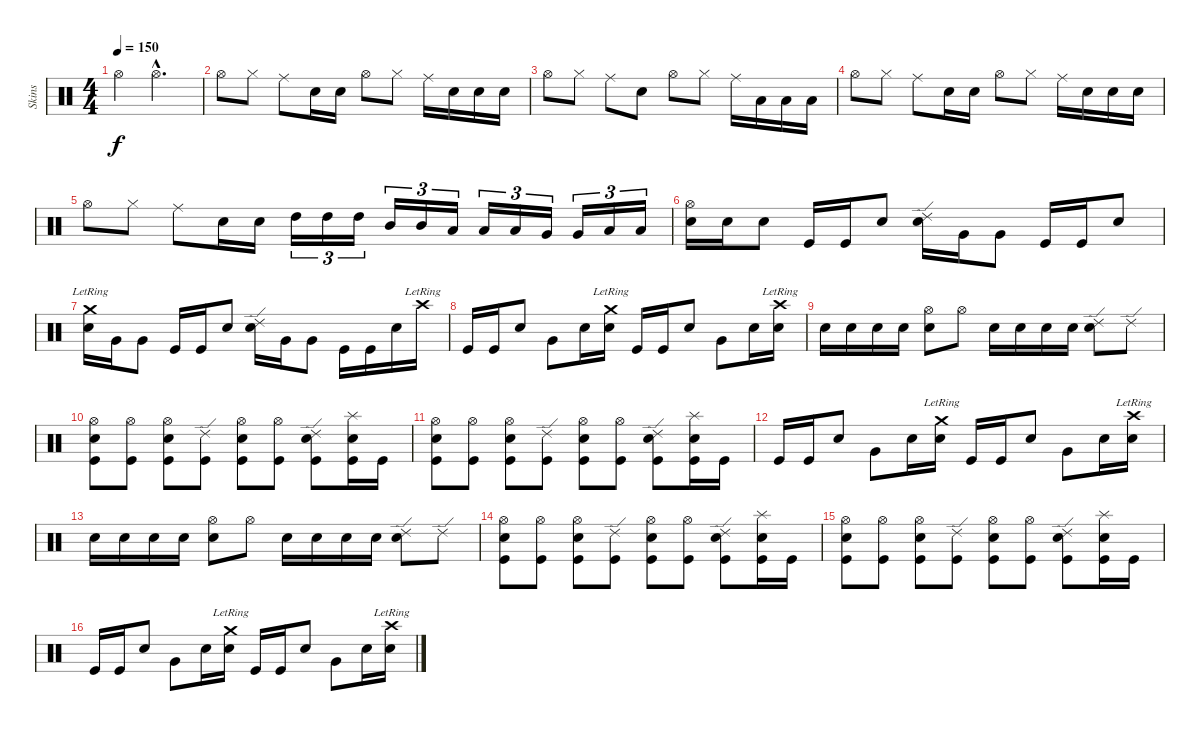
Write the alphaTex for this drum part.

\track ("Skins" "Skins") {instrument percussion}
\staff {score}
\articulation defaults
\ts (4 4)
\tempo 150
\clef neutral
\ks c "Hi-Hat (open)".4{dy f} "Hi-Hat (open)"{hac}.2{d}
|
"Hi-Hat (open)".8 "Hi-Hat (closed)".8 "Ride (middle)".8 "Electric Snare (hit)".16 "Electric Snare (hit)".16 "Hi-Hat (open)".8 "Hi-Hat (closed)".8 "Ride (middle)".16 "Electric Snare (hit)".16 "Electric Snare (hit)".16 "Electric Snare (hit)".16 |
"Hi-Hat (open)".8 "Hi-Hat (closed)".8 "Ride (middle)".8 "Electric Snare (hit)".8 "Hi-Hat (open)".8 "Hi-Hat (closed)".8 "Ride (middle)".16 "Low Tom (hit)".16 "Low Tom (hit)".16 "Low Tom (hit)".16 |
"Hi-Hat (open)".8 "Hi-Hat (closed)".8 "Ride (middle)".8 "Electric Snare (hit)".16 "Electric Snare (hit)".16 "Hi-Hat (open)".8 "Hi-Hat (closed)".8 "Ride (middle)".16 "Electric Snare (hit)".16 "Electric Snare (hit)".16 "Electric Snare (hit)".16 |
"Hi-Hat (open)".8 "Hi-Hat (closed)".8 "Ride (middle)".8 "Electric Snare (hit)".16 "Electric Snare (hit)".16 "High Tom (hit)".16{tu (3 2)} "High Tom (hit)".16{tu (3 2)} "High Tom (hit)".16{tu (3 2)} "Mid Tom (hit)".16{tu (3 2)} "Mid Tom (hit)".16{tu (3 2)} "Low Tom (hit)".16{tu (3 2)} "Low Tom (hit)".16{tu (3 2)} "Low Tom (hit)".16{tu (3 2)} "Very Low Tom (hit)".16{tu (3 2)} "Very Low Tom (hit)".16{tu (3 2)} "Low Floor Tom (hit)".16{tu (3 2)} "Low Floor Tom (hit)".16{tu (3 2)} |
("Hi-Hat (open)" "Snare (hit) 2").16 "Electric Snare (hit)".16 "Electric Snare (hit)".8 "Kick (hit)".16 "Kick (hit)".16 "Snare (hit) 2".8 ("Ride (edge) 2" "Snare (hit) 2").16 "Very Low Tom (hit)".16 "Very Low Tom (hit)".8 "Kick (hit)".16 "Kick (hit)".16 "Snare (hit) 2".8 |
("Snare (hit) 2" "Crash medium (hit)"{lr}).16 "Very Low Tom (hit)".16 "Very Low Tom (hit)".8 "Kick (hit)".16 "Kick (hit)".16 "Snare (hit) 2".8 ("Ride (edge) 2" "Snare (hit) 2").16 "Very Low Tom (hit)".16 "Very Low Tom (hit)".8 "Kick (hit)".16 "Kick (hit)".16 "Snare (hit) 2".16 "Crash high (hit)"{lr}.16 |
"Kick (hit)".16 "Kick (hit)".16 "Snare (hit) 2".8 "Very Low Tom (hit)".8 "Electric Snare (hit)".16 ("Electric Snare (hit)" "Crash medium (hit)"{lr}).16 "Kick (hit)".16 "Kick (hit)".16 "Snare (hit) 2".8 "Very Low Tom (hit)".8 "Electric Snare (hit)".16 ("Electric Snare (hit)" "Crash high (hit)"{lr}).16 |
"Electric Snare (hit)".16 "Electric Snare (hit)".16 "Electric Snare (hit)".16 "Electric Snare (hit)".16 ("Electric Snare (hit)" "Hi-Hat (open)").8 "Hi-Hat (open)".8 "Snare (hit) 2".16 "Snare (hit) 2".16 "Snare (hit) 2".16 "Snare (hit) 2".16 ("Snare (hit) 2" "Ride (edge) 2").8 "Ride (edge) 2".8 |
("Hi-Hat (open)" "Snare (hit) 2" "Kick (hit)").8 ("Hi-Hat (open)" "Kick (hit)").8 ("Hi-Hat (open)" "Snare (hit) 2" "Kick (hit)").8 ("Ride (edge) 2" "Kick (hit)").8 ("Hi-Hat (open)" "Snare (hit) 2" "Kick (hit)").8 ("Hi-Hat (open)" "Kick (hit)").8 ("Ride (edge) 2" "Electric Snare (hit)" "Kick (hit)").8 ("Splash (hit)" "Electric Snare (hit)" "Kick (hit)").16 "Kick (hit)".16 |
("Hi-Hat (open)" "Snare (hit) 2" "Kick (hit)").8 ("Hi-Hat (open)" "Kick (hit)").8 ("Hi-Hat (open)" "Snare (hit) 2" "Kick (hit)").8 ("Ride (edge) 2" "Kick (hit)").8 ("Hi-Hat (open)" "Snare (hit) 2" "Kick (hit)").8 ("Hi-Hat (open)" "Kick (hit)").8 ("Ride (edge) 2" "Electric Snare (hit)" "Kick (hit)").8 ("Splash (hit)" "Electric Snare (hit)" "Kick (hit)").16 "Kick (hit)".16 |
"Kick (hit)".16 "Kick (hit)".16 "Snare (hit) 2".8 "Very Low Tom (hit)".8 "Electric Snare (hit)".16 ("Electric Snare (hit)" "Crash medium (hit)"{lr}).16 "Kick (hit)".16 "Kick (hit)".16 "Snare (hit) 2".8 "Very Low Tom (hit)".8 "Electric Snare (hit)".16 ("Electric Snare (hit)" "Crash high (hit)"{lr}).16 |
"Electric Snare (hit)".16 "Electric Snare (hit)".16 "Electric Snare (hit)".16 "Electric Snare (hit)".16 ("Electric Snare (hit)" "Hi-Hat (open)").8 "Hi-Hat (open)".8 "Snare (hit) 2".16 "Snare (hit) 2".16 "Snare (hit) 2".16 "Snare (hit) 2".16 ("Snare (hit) 2" "Ride (edge) 2").8 "Ride (edge) 2".8 |
("Hi-Hat (open)" "Snare (hit) 2" "Kick (hit)").8 ("Hi-Hat (open)" "Kick (hit)").8 ("Hi-Hat (open)" "Snare (hit) 2" "Kick (hit)").8 ("Ride (edge) 2" "Kick (hit)").8 ("Hi-Hat (open)" "Snare (hit) 2" "Kick (hit)").8 ("Hi-Hat (open)" "Kick (hit)").8 ("Ride (edge) 2" "Electric Snare (hit)" "Kick (hit)").8 ("Splash (hit)" "Electric Snare (hit)" "Kick (hit)").16 "Kick (hit)".16 |
("Hi-Hat (open)" "Snare (hit) 2" "Kick (hit)").8 ("Hi-Hat (open)" "Kick (hit)").8 ("Hi-Hat (open)" "Snare (hit) 2" "Kick (hit)").8 ("Ride (edge) 2" "Kick (hit)").8 ("Hi-Hat (open)" "Snare (hit) 2" "Kick (hit)").8 ("Hi-Hat (open)" "Kick (hit)").8 ("Ride (edge) 2" "Electric Snare (hit)" "Kick (hit)").8 ("Splash (hit)" "Electric Snare (hit)" "Kick (hit)").16 "Kick (hit)".16 |
"Kick (hit)".16 "Kick (hit)".16 "Snare (hit) 2".8 "Very Low Tom (hit)".8 "Electric Snare (hit)".16 ("Electric Snare (hit)" "Crash medium (hit)"{lr}).16 "Kick (hit)".16 "Kick (hit)".16 "Snare (hit) 2".8 "Very Low Tom (hit)".8 "Electric Snare (hit)".16 ("Electric Snare (hit)" "Crash high (hit)"{lr}).16
